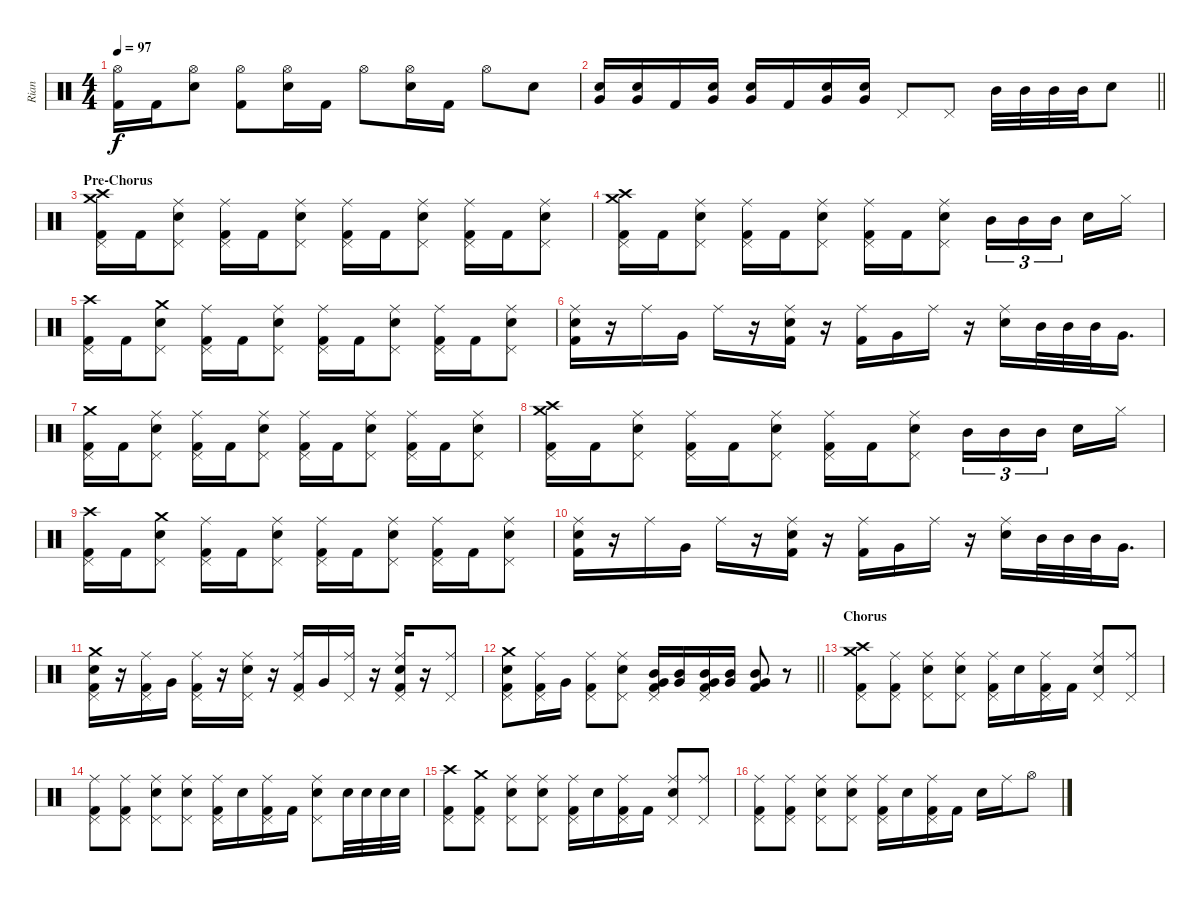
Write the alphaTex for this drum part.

\track ("Rian" "Rian") {instrument percussion}
\staff {score}
\articulation defaults
\ts (4 4)
\tempo 97
\clef neutral
\ks c
("Hi-Hat (open)" "Kick (hit) 2").16{dy f} "Kick (hit) 2".16 ("Hi-Hat (open)" "Electric Snare (hit)").8 ("Hi-Hat (open)" "Kick (hit) 2").8 ("Hi-Hat (open)" "Electric Snare (hit)").16 "Kick (hit) 2".16 "Hi-Hat (open)".8 ("Hi-Hat (open)" "Electric Snare (hit)").16 "Kick (hit) 2".16 "Hi-Hat (open)".8 "Electric Snare (hit)".8 |
\barLineRight lightlight
("Very Low Tom (hit)" "Electric Snare (hit)").16 ("Very Low Tom (hit)" "Electric Snare (hit)").16 "Kick (hit) 2".16 ("Very Low Tom (hit)" "Electric Snare (hit)").16 ("Very Low Tom (hit)" "Electric Snare (hit)").16 "Kick (hit) 2".16 ("Very Low Tom (hit)" "Electric Snare (hit)").16 ("Very Low Tom (hit)" "Electric Snare (hit)").16 "Pedal Hi-Hat (hit)".8 "Pedal Hi-Hat (hit)".8 "Mid Tom (hit)".32 "Mid Tom (hit)".32 "Mid Tom (hit)".32 "Mid Tom (hit)".32 "Electric Snare (hit)".8 |
\section ("" "Pre-Chorus")
("Crash medium (hit)" "Crash high (hit)" "Pedal Hi-Hat (hit)" "Kick (hit) 2").16 "Kick (hit) 2".16 ("Ride (middle)" "Pedal Hi-Hat (hit)" "Electric Snare (hit)").8 ("Ride (middle)" "Pedal Hi-Hat (hit)" "Kick (hit) 2").16 "Kick (hit) 2".16 ("Ride (middle)" "Pedal Hi-Hat (hit)" "Electric Snare (hit)").8 ("Ride (middle)" "Pedal Hi-Hat (hit)" "Kick (hit) 2").16 "Kick (hit) 2".16 ("Ride (middle)" "Pedal Hi-Hat (hit)" "Electric Snare (hit)").8 ("Ride (middle)" "Pedal Hi-Hat (hit)" "Kick (hit) 2").16 "Kick (hit) 2".16 ("Ride (middle)" "Pedal Hi-Hat (hit)" "Electric Snare (hit)").8 |
("Crash medium (hit)" "Crash high (hit)" "Pedal Hi-Hat (hit)" "Kick (hit) 2").16 "Kick (hit) 2".16 ("Ride (middle)" "Pedal Hi-Hat (hit)" "Electric Snare (hit)").8 ("Ride (middle)" "Pedal Hi-Hat (hit)" "Kick (hit) 2").16 "Kick (hit) 2".16 ("Ride (middle)" "Pedal Hi-Hat (hit)" "Electric Snare (hit)").8 ("Ride (middle)" "Pedal Hi-Hat (hit)" "Kick (hit) 2").16 "Kick (hit) 2".16 ("Ride (middle)" "Pedal Hi-Hat (hit)" "Electric Snare (hit)").8 "Mid Tom (hit)".16{tu (3 2)} "Mid Tom (hit)".16{tu (3 2)} "Mid Tom (hit)".16{tu (3 2) beam splitsecondary} "Electric Snare (hit)".16 "Hi-Hat (closed)".16 |
("Crash high (hit)" "Pedal Hi-Hat (hit)" "Kick (hit) 2").16 "Kick (hit) 2".16 ("Crash medium (hit)" "Pedal Hi-Hat (hit)" "Electric Snare (hit)").8 ("Ride (middle)" "Pedal Hi-Hat (hit)" "Kick (hit) 2").16 "Kick (hit) 2".16 ("Ride (middle)" "Pedal Hi-Hat (hit)" "Electric Snare (hit)").8 ("Ride (middle)" "Pedal Hi-Hat (hit)" "Kick (hit) 2").16 "Kick (hit) 2".16 ("Ride (middle)" "Pedal Hi-Hat (hit)" "Electric Snare (hit)").8 ("Ride (middle)" "Pedal Hi-Hat (hit)" "Kick (hit) 2").16 "Kick (hit) 2".16 ("Ride (middle)" "Pedal Hi-Hat (hit)" "Electric Snare (hit)").8 |
("Ride (middle)" "Electric Snare (hit)" "Kick (hit) 2").16 r.16 "Ride (middle)".16 "Very Low Tom (hit)".16 "Ride (middle)".16 r.16 ("Ride (middle)" "Electric Snare (hit)" "Kick (hit) 2").16 r.16 ("Ride (middle)" "Kick (hit) 2").16 "Very Low Tom (hit)".16 "Ride (middle)".16 r.16 ("Ride (middle)" "Electric Snare (hit)").16 "Mid Tom (hit)".32 "Mid Tom (hit)".32 "Mid Tom (hit)".32 "Very Low Tom (hit)".16{d} |
("Crash medium (hit)" "Pedal Hi-Hat (hit)" "Kick (hit) 2").16 "Kick (hit) 2".16 ("Ride (middle)" "Pedal Hi-Hat (hit)" "Electric Snare (hit)").8 ("Ride (middle)" "Pedal Hi-Hat (hit)" "Kick (hit) 2").16 "Kick (hit) 2".16 ("Ride (middle)" "Pedal Hi-Hat (hit)" "Electric Snare (hit)").8 ("Ride (middle)" "Pedal Hi-Hat (hit)" "Kick (hit) 2").16 "Kick (hit) 2".16 ("Ride (middle)" "Pedal Hi-Hat (hit)" "Electric Snare (hit)").8 ("Ride (middle)" "Pedal Hi-Hat (hit)" "Kick (hit) 2").16 "Kick (hit) 2".16 ("Ride (middle)" "Pedal Hi-Hat (hit)" "Electric Snare (hit)").8 |
("Crash medium (hit)" "Crash high (hit)" "Pedal Hi-Hat (hit)" "Kick (hit) 2").16 "Kick (hit) 2".16 ("Ride (middle)" "Pedal Hi-Hat (hit)" "Electric Snare (hit)").8 ("Ride (middle)" "Pedal Hi-Hat (hit)" "Kick (hit) 2").16 "Kick (hit) 2".16 ("Ride (middle)" "Pedal Hi-Hat (hit)" "Electric Snare (hit)").8 ("Ride (middle)" "Pedal Hi-Hat (hit)" "Kick (hit) 2").16 "Kick (hit) 2".16 ("Ride (middle)" "Pedal Hi-Hat (hit)" "Electric Snare (hit)").8 "Mid Tom (hit)".16{tu (3 2)} "Mid Tom (hit)".16{tu (3 2)} "Mid Tom (hit)".16{tu (3 2) beam splitsecondary} "Electric Snare (hit)".16 "Hi-Hat (closed)".16 |
("Crash high (hit)" "Pedal Hi-Hat (hit)" "Kick (hit) 2").16 "Kick (hit) 2".16 ("Crash medium (hit)" "Pedal Hi-Hat (hit)" "Electric Snare (hit)").8 ("Ride (middle)" "Pedal Hi-Hat (hit)" "Kick (hit) 2").16 "Kick (hit) 2".16 ("Ride (middle)" "Pedal Hi-Hat (hit)" "Electric Snare (hit)").8 ("Ride (middle)" "Pedal Hi-Hat (hit)" "Kick (hit) 2").16 "Kick (hit) 2".16 ("Ride (middle)" "Pedal Hi-Hat (hit)" "Electric Snare (hit)").8 ("Ride (middle)" "Pedal Hi-Hat (hit)" "Kick (hit) 2").16 "Kick (hit) 2".16 ("Ride (middle)" "Pedal Hi-Hat (hit)" "Electric Snare (hit)").8 |
("Ride (middle)" "Electric Snare (hit)" "Kick (hit) 2").16 r.16 "Ride (middle)".16 "Very Low Tom (hit)".16 "Ride (middle)".16 r.16 ("Ride (middle)" "Electric Snare (hit)" "Kick (hit) 2").16 r.16 ("Ride (middle)" "Kick (hit) 2").16 "Very Low Tom (hit)".16 "Ride (middle)".16 r.16 ("Ride (middle)" "Electric Snare (hit)").16 "Mid Tom (hit)".32 "Mid Tom (hit)".32 "Mid Tom (hit)".32 "Very Low Tom (hit)".16{d} |
("Crash medium (hit)" "Pedal Hi-Hat (hit)" "Electric Snare (hit)" "Kick (hit) 2").16 r.16 ("Ride (middle)" "Pedal Hi-Hat (hit)" "Kick (hit) 2").16 "Very Low Tom (hit)".16 ("Ride (middle)" "Pedal Hi-Hat (hit)" "Kick (hit) 2").16 r.16 ("Ride (middle)" "Pedal Hi-Hat (hit)" "Electric Snare (hit)").16 r.16 ("Ride (middle)" "Pedal Hi-Hat (hit)" "Kick (hit) 2").16 "Very Low Tom (hit)".16 ("Ride (middle)" "Pedal Hi-Hat (hit)").16 r.16 ("Ride (middle)" "Pedal Hi-Hat (hit)" "Electric Snare (hit)" "Kick (hit) 2").16 r.16 ("Ride (middle)" "Pedal Hi-Hat (hit)").8 |
\barLineRight lightlight
("Crash medium (hit)" "Pedal Hi-Hat (hit)" "Electric Snare (hit)" "Kick (hit) 2").8 ("Ride (middle)" "Pedal Hi-Hat (hit)" "Kick (hit) 2").16 "Very Low Tom (hit)".16 ("Ride (middle)" "Pedal Hi-Hat (hit)" "Kick (hit) 2").8 ("Ride (middle)" "Pedal Hi-Hat (hit)" "Electric Snare (hit)").8 ("Pedal Hi-Hat (hit)" "Very Low Tom (hit)" "Mid Tom (hit)" "Kick (hit) 2").16 ("Very Low Tom (hit)" "Mid Tom (hit)").16 ("Pedal Hi-Hat (hit)" "Very Low Tom (hit)" "Mid Tom (hit)" "Kick (hit) 2").16 ("Very Low Tom (hit)" "Mid Tom (hit)").16 ("Very Low Tom (hit)" "Mid Tom (hit)" "Kick (hit) 2").8 r.8 |
\section ("" "Chorus")
("Crash high (hit)" "Crash medium (hit)" "Pedal Hi-Hat (hit)" "Kick (hit) 2").8 ("Ride (middle)" "Pedal Hi-Hat (hit)" "Kick (hit) 2").8 ("Ride (middle)" "Pedal Hi-Hat (hit)" "Electric Snare (hit)").8 ("Ride (middle)" "Pedal Hi-Hat (hit)" "Electric Snare (hit)").8 ("Ride (middle)" "Pedal Hi-Hat (hit)" "Kick (hit) 2").16 "Electric Snare (hit)".16 ("Ride (middle)" "Pedal Hi-Hat (hit)" "Kick (hit) 2").16 "Kick (hit) 2".16 ("Ride (middle)" "Pedal Hi-Hat (hit)" "Electric Snare (hit)").8 ("Ride (middle)" "Pedal Hi-Hat (hit)").8 |
("Ride (middle)" "Pedal Hi-Hat (hit)" "Kick (hit) 2").8 ("Ride (middle)" "Pedal Hi-Hat (hit)" "Kick (hit) 2").8 ("Ride (middle)" "Pedal Hi-Hat (hit)" "Electric Snare (hit)").8 ("Ride (middle)" "Pedal Hi-Hat (hit)" "Electric Snare (hit)").8 ("Ride (middle)" "Pedal Hi-Hat (hit)" "Kick (hit) 2").16 "Electric Snare (hit)".16 ("Ride (middle)" "Pedal Hi-Hat (hit)" "Kick (hit) 2").16 "Kick (hit) 2".16 ("Ride (middle)" "Pedal Hi-Hat (hit)" "Electric Snare (hit)").8 "Electric Snare (hit)".32 "Electric Snare (hit)".32 "Electric Snare (hit)".32 "Electric Snare (hit)".32 |
("Crash high (hit)" "Pedal Hi-Hat (hit)" "Kick (hit) 2").8 ("Crash medium (hit)" "Pedal Hi-Hat (hit)" "Kick (hit) 2").8 ("Ride (middle)" "Pedal Hi-Hat (hit)" "Electric Snare (hit)").8 ("Ride (middle)" "Pedal Hi-Hat (hit)" "Electric Snare (hit)").8 ("Ride (middle)" "Pedal Hi-Hat (hit)" "Kick (hit) 2").16 "Electric Snare (hit)".16 ("Ride (middle)" "Pedal Hi-Hat (hit)" "Kick (hit) 2").16 "Kick (hit) 2".16 ("Ride (middle)" "Pedal Hi-Hat (hit)" "Electric Snare (hit)").8 ("Ride (middle)" "Pedal Hi-Hat (hit)").8 |
("Ride (middle)" "Pedal Hi-Hat (hit)" "Kick (hit) 2").8 ("Ride (middle)" "Pedal Hi-Hat (hit)" "Kick (hit) 2").8 ("Ride (middle)" "Pedal Hi-Hat (hit)" "Electric Snare (hit)").8 ("Ride (middle)" "Pedal Hi-Hat (hit)" "Electric Snare (hit)").8 ("Ride (middle)" "Pedal Hi-Hat (hit)" "Kick (hit) 2").16 "Electric Snare (hit)".16 ("Ride (middle)" "Pedal Hi-Hat (hit)" "Kick (hit) 2").16 "Kick (hit) 2".16 "Electric Snare (hit)".16 "Ride (middle)".16 "Hi-Hat (open)".8
